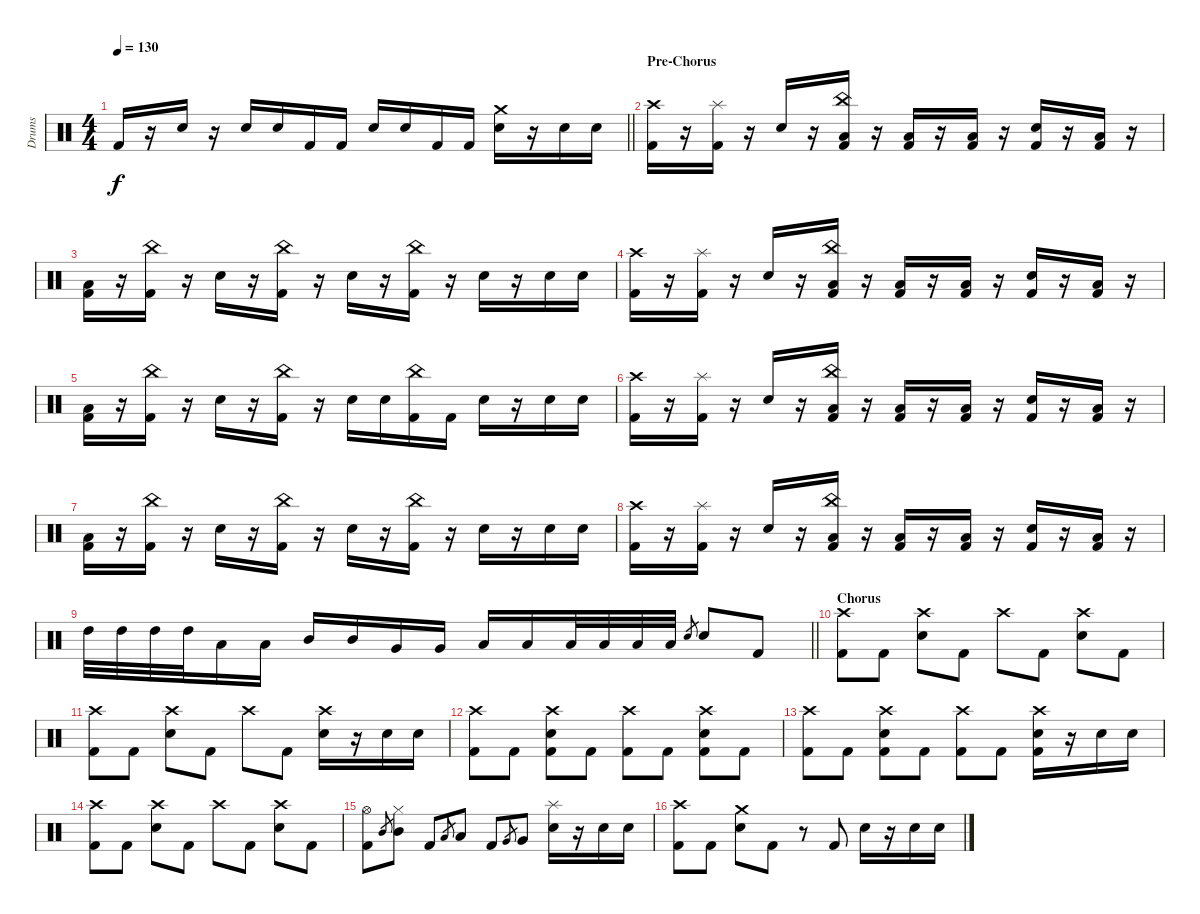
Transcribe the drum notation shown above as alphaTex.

\track ("Drums" "Drums") {instrument percussion}
\staff {score}
\articulation defaults
\ts (4 4)
\tempo 130
\clef neutral
\barLineRight lightlight
\ks c "Kick (hit) 2".16{dy f}
r.16 "Snare (hit) 2".16 r.16 "Snare (hit) 2".16 "Snare (hit) 2".16 "Kick (hit) 2".16 "Kick (hit) 2".16 "Snare (hit) 2".16 "Snare (hit) 2".16 "Kick (hit) 2".16 "Kick (hit) 2".16 ("Crash medium (hit)" "Snare (hit) 2").16 r.16 "Snare (hit) 2".16 "Snare (hit) 2".16 |
\section ("" "Pre-Chorus")
("Crash high (hit)" "Kick (hit) 2").16 r.16 ("Splash (hit)" "Kick (hit) 2").16 r.16 "Snare (hit) 2".16 r.16 ("China (hit)" "Low Floor Tom (hit)" "Kick (hit) 2").16 r.16 ("Low Floor Tom (hit)" "Kick (hit) 2").16 r.16 ("Low Floor Tom (hit)" "Kick (hit) 2").16 r.16 ("Snare (hit) 2" "Kick (hit) 2").16 r.16 ("Low Floor Tom (hit)" "Kick (hit) 2").16 r.16 |
("Low Floor Tom (hit)" "Kick (hit) 2").16 r.16 ("China (hit)" "Kick (hit) 2").16 r.16 "Snare (hit) 2".16 r.16 ("China (hit)" "Kick (hit) 2").16 r.16 "Snare (hit) 2".16 r.16 ("China (hit)" "Kick (hit) 2").16 r.16 "Snare (hit) 2".16 r.16 "Snare (hit) 2".16 "Snare (hit) 2".16 |
("Crash high (hit)" "Kick (hit) 2").16 r.16 ("Splash (hit)" "Kick (hit) 2").16 r.16 "Snare (hit) 2".16 r.16 ("China (hit)" "Low Floor Tom (hit)" "Kick (hit) 2").16 r.16 ("Low Floor Tom (hit)" "Kick (hit) 2").16 r.16 ("Low Floor Tom (hit)" "Kick (hit) 2").16 r.16 ("Snare (hit) 2" "Kick (hit) 2").16 r.16 ("Low Floor Tom (hit)" "Kick (hit) 2").16 r.16 |
("Low Floor Tom (hit)" "Kick (hit) 2").16 r.16 ("China (hit)" "Kick (hit) 2").16 r.16 "Snare (hit) 2".16 r.16 ("China (hit)" "Kick (hit) 2").16 r.16 "Snare (hit) 2".16 "Snare (hit) 2".16 ("China (hit)" "Kick (hit) 2").16 "Kick (hit) 2".16 "Snare (hit) 2".16 r.16 "Snare (hit) 2".16 "Snare (hit) 2".16 |
("Crash high (hit)" "Kick (hit) 2").16 r.16 ("Splash (hit)" "Kick (hit) 2").16 r.16 "Snare (hit) 2".16 r.16 ("China (hit)" "Low Floor Tom (hit)" "Kick (hit) 2").16 r.16 ("Low Floor Tom (hit)" "Kick (hit) 2").16 r.16 ("Low Floor Tom (hit)" "Kick (hit) 2").16 r.16 ("Snare (hit) 2" "Kick (hit) 2").16 r.16 ("Low Floor Tom (hit)" "Kick (hit) 2").16 r.16 |
("Low Floor Tom (hit)" "Kick (hit) 2").16 r.16 ("China (hit)" "Kick (hit) 2").16 r.16 "Snare (hit) 2".16 r.16 ("China (hit)" "Kick (hit) 2").16 r.16 "Snare (hit) 2".16 r.16 ("China (hit)" "Kick (hit) 2").16 r.16 "Snare (hit) 2".16 r.16 "Snare (hit) 2".16 "Snare (hit) 2".16 |
("Crash high (hit)" "Kick (hit) 2").16 r.16 ("Splash (hit)" "Kick (hit) 2").16 r.16 "Snare (hit) 2".16 r.16 ("China (hit)" "Low Floor Tom (hit)" "Kick (hit) 2").16 r.16 ("Low Floor Tom (hit)" "Kick (hit) 2").16 r.16 ("Low Floor Tom (hit)" "Kick (hit) 2").16 r.16 ("Snare (hit) 2" "Kick (hit) 2").16 r.16 ("Low Floor Tom (hit)" "Kick (hit) 2").16 r.16 |
\barLineRight lightlight "High Tom (hit)".32 "High Tom (hit)".32 "High Tom (hit)".32 "High Tom (hit)".32 "Low Tom (hit)".16 "Low Tom (hit)".16 "Mid Tom (hit)".16 "Mid Tom (hit)".16 "Very Low Tom (hit)".16 "Very Low Tom (hit)".16 "Low Tom (hit)".16 "Low Tom (hit)".16 "Low Floor Tom (hit)".32 "Low Floor Tom (hit)".32 "Low Floor Tom (hit)".32 "Low Floor Tom (hit)".32 "Snare (hit) 2".8{gr} "Snare (hit) 2".8 "Kick (hit) 2".8
|
\section ("" "Chorus")
("Crash high (hit)" "Kick (hit) 2").8 "Kick (hit) 2".8 ("Crash high (hit)" "Snare (hit) 2").8 "Kick (hit) 2".8 "Crash high (hit)".8 "Kick (hit) 2".8 ("Crash high (hit)" "Snare (hit) 2").8 "Kick (hit) 2".8 |
("Crash high (hit)" "Kick (hit) 2").8 "Kick (hit) 2".8 ("Crash high (hit)" "Snare (hit) 2").8 "Kick (hit) 2".8 "Crash high (hit)".8 "Kick (hit) 2".8 ("Crash high (hit)" "Snare (hit) 2").16 r.16 "Snare (hit) 2".16 "Snare (hit) 2".16 |
("Crash high (hit)" "Kick (hit) 2").8 "Kick (hit) 2".8 ("Crash high (hit)" "Snare (hit) 2" "Kick (hit) 2").8 "Kick (hit) 2".8 ("Crash high (hit)" "Kick (hit) 2").8 "Kick (hit) 2".8 ("Crash high (hit)" "Snare (hit) 2" "Kick (hit) 2").8 "Kick (hit) 2".8 |
("Crash high (hit)" "Kick (hit) 2").8 "Kick (hit) 2".8 ("Crash high (hit)" "Snare (hit) 2" "Kick (hit) 2").8 "Kick (hit) 2".8 ("Crash high (hit)" "Kick (hit) 2").8 "Kick (hit) 2".8 ("Crash high (hit)" "Snare (hit) 2" "Kick (hit) 2").16 r.16 "Snare (hit) 2".16 "Snare (hit) 2".16 |
("Crash high (hit)" "Kick (hit) 2").8 "Kick (hit) 2".8 ("Crash high (hit)" "Snare (hit) 2").8 "Kick (hit) 2".8 "Crash high (hit)".8 "Kick (hit) 2".8 ("Crash high (hit)" "Snare (hit) 2").8 "Kick (hit) 2".8 |
("Hi-Hat (open)" "Kick (hit) 2").8 "Mid Tom (hit)".8{gr} ("Hi-Hat (closed)" "Mid Tom (hit)").8 "Kick (hit) 2".8 "Low Tom (hit)".8{gr} "Low Tom (hit)".8 "Kick (hit) 2".8 "Very Low Tom (hit)".8{gr} "Very Low Tom (hit)".8 ("Splash (hit)" "Snare (hit) 2").16 r.16 "Snare (hit) 2".16 "Snare (hit) 2".16 |
("Crash high (hit)" "Kick (hit) 2").8 "Kick (hit) 2".8 ("Crash medium (hit)" "Snare (hit) 2").8 "Kick (hit) 2".8 r.8 "Kick (hit) 2".8 "Snare (hit) 2".16 r.16 "Snare (hit) 2".16 "Snare (hit) 2".16
